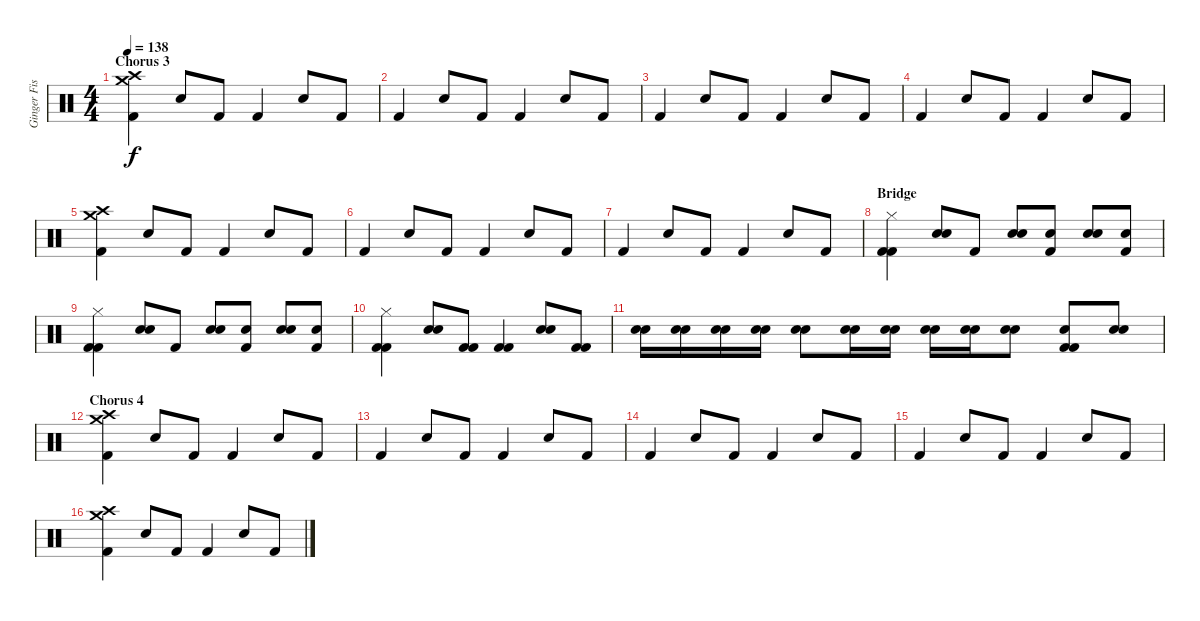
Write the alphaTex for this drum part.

\track ("Ginger Fish [Drums]" "Ginger Fis") {instrument percussion}
\staff {score}
\articulation defaults
\ts (4 4)
\section ("" "Chorus 3")
\tempo 138
\clef neutral
\ks c
("Kick (hit) 2" "Crash high (hit)" "Crash medium (hit)").4{dy f} "Snare (hit) 2".8 "Kick (hit) 2".8 "Kick (hit) 2".4 "Snare (hit) 2".8 "Kick (hit) 2".8 |
"Kick (hit) 2".4 "Snare (hit) 2".8 "Kick (hit) 2".8 "Kick (hit) 2".4 "Snare (hit) 2".8 "Kick (hit) 2".8 |
"Kick (hit) 2".4 "Snare (hit) 2".8 "Kick (hit) 2".8 "Kick (hit) 2".4 "Snare (hit) 2".8 "Kick (hit) 2".8 |
"Kick (hit) 2".4 "Snare (hit) 2".8 "Kick (hit) 2".8 "Kick (hit) 2".4 "Snare (hit) 2".8 "Kick (hit) 2".8 |
("Kick (hit) 2" "Crash high (hit)" "Crash medium (hit)").4 "Snare (hit) 2".8 "Kick (hit) 2".8 "Kick (hit) 2".4 "Snare (hit) 2".8 "Kick (hit) 2".8 |
"Kick (hit) 2".4 "Snare (hit) 2".8 "Kick (hit) 2".8 "Kick (hit) 2".4 "Snare (hit) 2".8 "Kick (hit) 2".8 |
"Kick (hit) 2".4 "Snare (hit) 2".8 "Kick (hit) 2".8 "Kick (hit) 2".4 "Snare (hit) 2".8 "Kick (hit) 2".8 |
\section ("" "Bridge")
("Kick (hit) 2" "Kick (hit) 2" "Hi-Hat (closed)").4 ("Snare (hit) 2" "Snare (hit) 2").8 "Kick (hit) 2".8 ("Snare (hit) 2" "Snare (hit) 2").8 ("Snare (hit) 2" "Kick (hit) 2").8 ("Snare (hit) 2" "Snare (hit) 2").8 ("Snare (hit) 2" "Kick (hit) 2").8 |
("Kick (hit) 2" "Kick (hit) 2" "Hi-Hat (closed)").4 ("Snare (hit) 2" "Snare (hit) 2").8 "Kick (hit) 2".8 ("Snare (hit) 2" "Snare (hit) 2").8 ("Snare (hit) 2" "Kick (hit) 2").8 ("Snare (hit) 2" "Snare (hit) 2").8 ("Snare (hit) 2" "Kick (hit) 2").8 |
("Kick (hit) 2" "Kick (hit) 2" "Hi-Hat (closed)").4 ("Snare (hit) 2" "Snare (hit) 2").8 ("Kick (hit) 2" "Kick (hit) 2").8 ("Kick (hit) 2" "Kick (hit) 2").4 ("Snare (hit) 2" "Snare (hit) 2").8 ("Kick (hit) 2" "Kick (hit) 2").8 |
("Snare (hit) 2" "Snare (hit) 2").16 ("Snare (hit) 2" "Snare (hit) 2").16 ("Snare (hit) 2" "Snare (hit) 2").16 ("Snare (hit) 2" "Snare (hit) 2").16 ("Snare (hit) 2" "Snare (hit) 2").8 ("Snare (hit) 2" "Snare (hit) 2").16 ("Snare (hit) 2" "Snare (hit) 2").16 ("Snare (hit) 2" "Snare (hit) 2").16 ("Snare (hit) 2" "Snare (hit) 2").16 ("Snare (hit) 2" "Snare (hit) 2").8 ("Snare (hit) 2" "Kick (hit) 2" "Kick (hit) 2").8 ("Snare (hit) 2" "Snare (hit) 2").8 |
\section ("" "Chorus 4")
("Kick (hit) 2" "Crash high (hit)" "Crash medium (hit)").4 "Snare (hit) 2".8 "Kick (hit) 2".8 "Kick (hit) 2".4 "Snare (hit) 2".8 "Kick (hit) 2".8 |
"Kick (hit) 2".4 "Snare (hit) 2".8 "Kick (hit) 2".8 "Kick (hit) 2".4 "Snare (hit) 2".8 "Kick (hit) 2".8 |
"Kick (hit) 2".4 "Snare (hit) 2".8 "Kick (hit) 2".8 "Kick (hit) 2".4 "Snare (hit) 2".8 "Kick (hit) 2".8 |
"Kick (hit) 2".4 "Snare (hit) 2".8 "Kick (hit) 2".8 "Kick (hit) 2".4 "Snare (hit) 2".8 "Kick (hit) 2".8 |
("Kick (hit) 2" "Crash high (hit)" "Crash medium (hit)").4 "Snare (hit) 2".8 "Kick (hit) 2".8 "Kick (hit) 2".4 "Snare (hit) 2".8 "Kick (hit) 2".8
